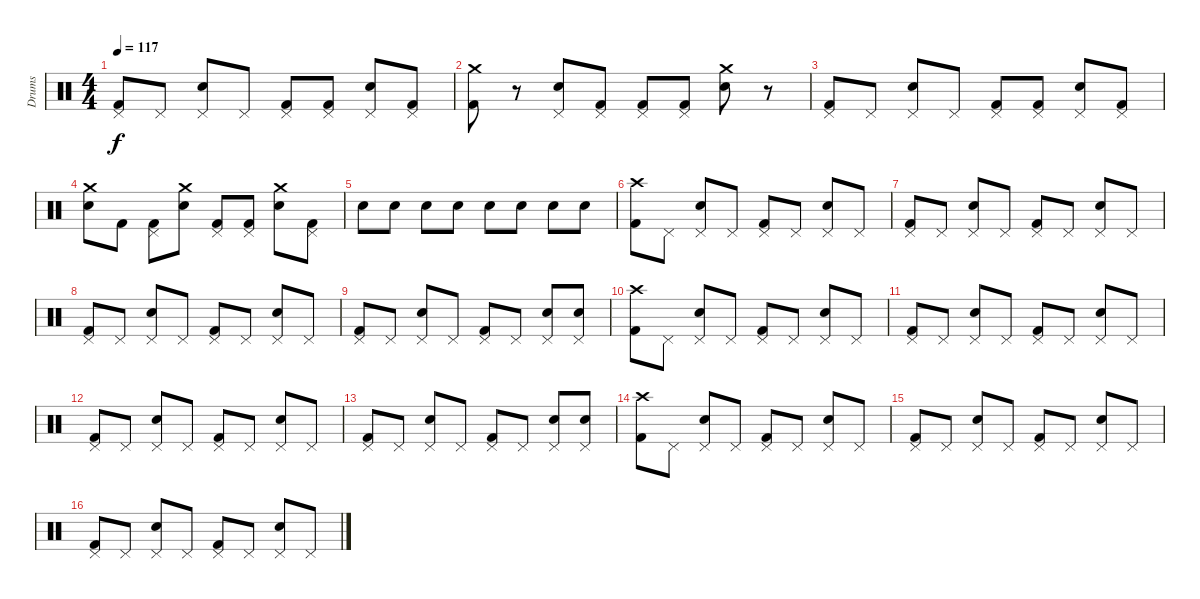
\track ("Drums" "Drums") {instrument percussion}
\staff {score}
\articulation defaults
\ts (4 4)
\tempo 117
\clef neutral
\ks c
("Pedal Hi-Hat (hit)" "Kick (hit) 2").8{dy f} "Pedal Hi-Hat (hit)".8 ("Pedal Hi-Hat (hit)" "Snare (hit) 2").8 "Pedal Hi-Hat (hit)".8 ("Pedal Hi-Hat (hit)" "Kick (hit) 2").8 ("Pedal Hi-Hat (hit)" "Kick (hit) 2").8 ("Pedal Hi-Hat (hit)" "Snare (hit) 2").8 ("Pedal Hi-Hat (hit)" "Kick (hit) 2").8 |
("Crash medium (hit)" "Kick (hit) 2").8 r.8 ("Pedal Hi-Hat (hit)" "Snare (hit) 2").8 ("Pedal Hi-Hat (hit)" "Kick (hit) 2").8 ("Pedal Hi-Hat (hit)" "Kick (hit) 2").8 ("Pedal Hi-Hat (hit)" "Kick (hit) 2").8 ("Crash medium (hit)" "Snare (hit) 2").8 r.8 |
("Pedal Hi-Hat (hit)" "Kick (hit) 2").8 "Pedal Hi-Hat (hit)".8 ("Pedal Hi-Hat (hit)" "Snare (hit) 2").8 "Pedal Hi-Hat (hit)".8 ("Pedal Hi-Hat (hit)" "Kick (hit) 2").8 ("Pedal Hi-Hat (hit)" "Kick (hit) 2").8 ("Pedal Hi-Hat (hit)" "Snare (hit) 2").8 ("Pedal Hi-Hat (hit)" "Kick (hit) 2").8 |
("Crash medium (hit)" "Snare (hit) 2").8 "Kick (hit) 2".8 ("Pedal Hi-Hat (hit)" "Kick (hit) 2").8 ("Crash medium (hit)" "Snare (hit) 2").8 ("Pedal Hi-Hat (hit)" "Kick (hit) 2").8 ("Pedal Hi-Hat (hit)" "Kick (hit) 2").8 ("Crash medium (hit)" "Snare (hit) 2").8 ("Pedal Hi-Hat (hit)" "Kick (hit) 2").8 |
"Snare (hit) 2".8 "Snare (hit) 2".8 "Snare (hit) 2".8 "Snare (hit) 2".8 "Snare (hit) 2".8 "Snare (hit) 2".8 "Snare (hit) 2".8 "Snare (hit) 2".8 |
("Crash high (hit)" "Kick (hit) 2").8 "Pedal Hi-Hat (hit)".8 ("Pedal Hi-Hat (hit)" "Snare (hit) 2").8 "Pedal Hi-Hat (hit)".8 ("Pedal Hi-Hat (hit)" "Kick (hit) 2").8 "Pedal Hi-Hat (hit)".8 ("Pedal Hi-Hat (hit)" "Snare (hit) 2").8 "Pedal Hi-Hat (hit)".8 |
("Pedal Hi-Hat (hit)" "Kick (hit) 2").8 "Pedal Hi-Hat (hit)".8 ("Pedal Hi-Hat (hit)" "Snare (hit) 2").8 "Pedal Hi-Hat (hit)".8 ("Pedal Hi-Hat (hit)" "Kick (hit) 2").8 "Pedal Hi-Hat (hit)".8 ("Pedal Hi-Hat (hit)" "Snare (hit) 2").8 "Pedal Hi-Hat (hit)".8 |
("Pedal Hi-Hat (hit)" "Kick (hit) 2").8 "Pedal Hi-Hat (hit)".8 ("Pedal Hi-Hat (hit)" "Snare (hit) 2").8 "Pedal Hi-Hat (hit)".8 ("Pedal Hi-Hat (hit)" "Kick (hit) 2").8 "Pedal Hi-Hat (hit)".8 ("Pedal Hi-Hat (hit)" "Snare (hit) 2").8 "Pedal Hi-Hat (hit)".8 |
("Pedal Hi-Hat (hit)" "Kick (hit) 2").8 "Pedal Hi-Hat (hit)".8 ("Pedal Hi-Hat (hit)" "Snare (hit) 2").8 "Pedal Hi-Hat (hit)".8 ("Pedal Hi-Hat (hit)" "Kick (hit) 2").8 "Pedal Hi-Hat (hit)".8 ("Pedal Hi-Hat (hit)" "Snare (hit) 2").8 ("Pedal Hi-Hat (hit)" "Snare (hit) 2").8 |
("Crash high (hit)" "Kick (hit) 2").8 "Pedal Hi-Hat (hit)".8 ("Pedal Hi-Hat (hit)" "Snare (hit) 2").8 "Pedal Hi-Hat (hit)".8 ("Pedal Hi-Hat (hit)" "Kick (hit) 2").8 "Pedal Hi-Hat (hit)".8 ("Pedal Hi-Hat (hit)" "Snare (hit) 2").8 "Pedal Hi-Hat (hit)".8 |
("Pedal Hi-Hat (hit)" "Kick (hit) 2").8 "Pedal Hi-Hat (hit)".8 ("Pedal Hi-Hat (hit)" "Snare (hit) 2").8 "Pedal Hi-Hat (hit)".8 ("Pedal Hi-Hat (hit)" "Kick (hit) 2").8 "Pedal Hi-Hat (hit)".8 ("Pedal Hi-Hat (hit)" "Snare (hit) 2").8 "Pedal Hi-Hat (hit)".8 |
("Pedal Hi-Hat (hit)" "Kick (hit) 2").8 "Pedal Hi-Hat (hit)".8 ("Pedal Hi-Hat (hit)" "Snare (hit) 2").8 "Pedal Hi-Hat (hit)".8 ("Pedal Hi-Hat (hit)" "Kick (hit) 2").8 "Pedal Hi-Hat (hit)".8 ("Pedal Hi-Hat (hit)" "Snare (hit) 2").8 "Pedal Hi-Hat (hit)".8 |
("Pedal Hi-Hat (hit)" "Kick (hit) 2").8 "Pedal Hi-Hat (hit)".8 ("Pedal Hi-Hat (hit)" "Snare (hit) 2").8 "Pedal Hi-Hat (hit)".8 ("Pedal Hi-Hat (hit)" "Kick (hit) 2").8 "Pedal Hi-Hat (hit)".8 ("Pedal Hi-Hat (hit)" "Snare (hit) 2").8 ("Pedal Hi-Hat (hit)" "Snare (hit) 2").8 |
("Crash high (hit)" "Kick (hit) 2").8 "Pedal Hi-Hat (hit)".8 ("Pedal Hi-Hat (hit)" "Snare (hit) 2").8 "Pedal Hi-Hat (hit)".8 ("Pedal Hi-Hat (hit)" "Kick (hit) 2").8 "Pedal Hi-Hat (hit)".8 ("Pedal Hi-Hat (hit)" "Snare (hit) 2").8 "Pedal Hi-Hat (hit)".8 |
("Pedal Hi-Hat (hit)" "Kick (hit) 2").8 "Pedal Hi-Hat (hit)".8 ("Pedal Hi-Hat (hit)" "Snare (hit) 2").8 "Pedal Hi-Hat (hit)".8 ("Pedal Hi-Hat (hit)" "Kick (hit) 2").8 "Pedal Hi-Hat (hit)".8 ("Pedal Hi-Hat (hit)" "Snare (hit) 2").8 "Pedal Hi-Hat (hit)".8 |
("Pedal Hi-Hat (hit)" "Kick (hit) 2").8 "Pedal Hi-Hat (hit)".8 ("Pedal Hi-Hat (hit)" "Snare (hit) 2").8 "Pedal Hi-Hat (hit)".8 ("Pedal Hi-Hat (hit)" "Kick (hit) 2").8 "Pedal Hi-Hat (hit)".8 ("Pedal Hi-Hat (hit)" "Snare (hit) 2").8 "Pedal Hi-Hat (hit)".8
